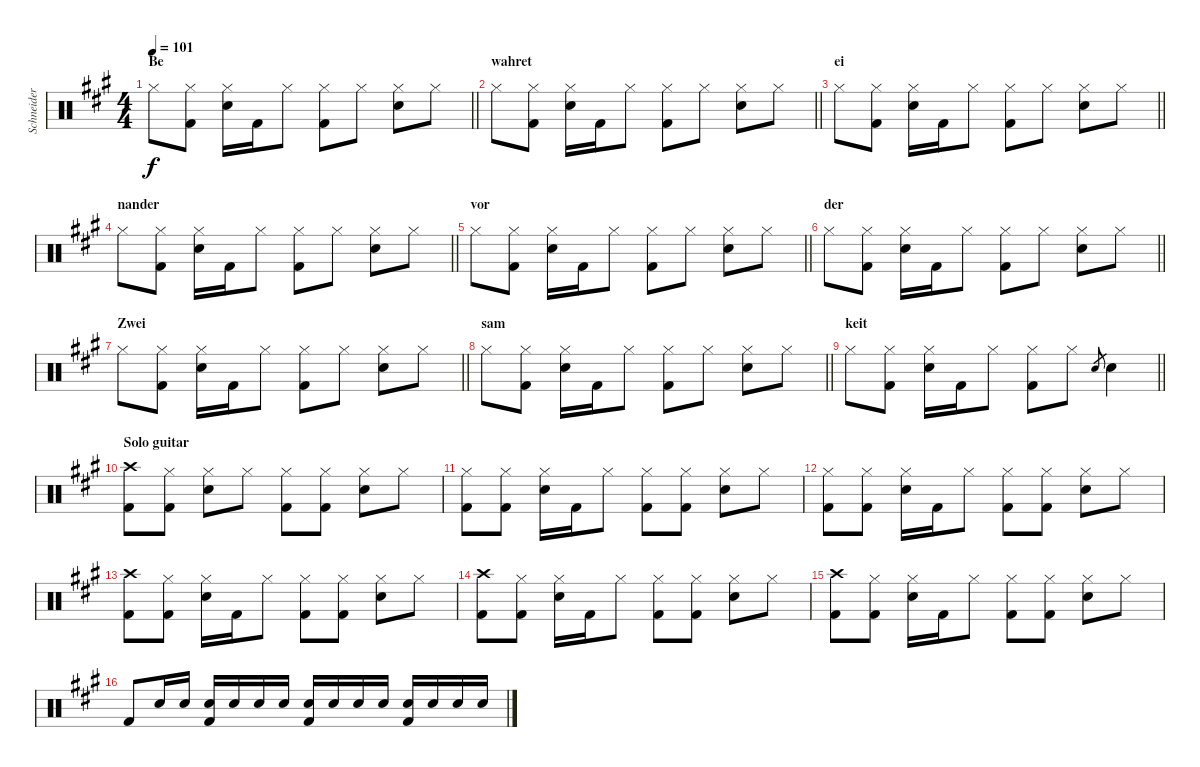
\track ("Schneider" "Schneider") {instrument percussion}
\staff {score}
\articulation defaults
\ts (4 4)
\section ("" "Be")
\tempo 101
\clef neutral
\barLineRight lightlight
\ks f#minor "Hi-Hat (closed)".8{dy f}
("Hi-Hat (closed)" "Kick (hit) 2").8 ("Hi-Hat (closed)" "Snare (hit) 2").16 "Kick (hit) 2".16 "Hi-Hat (closed)".8 ("Hi-Hat (closed)" "Kick (hit) 2").8 "Hi-Hat (closed)".8 ("Hi-Hat (closed)" "Snare (hit) 2").8 "Hi-Hat (closed)".8 |
\section ("" "wahret")
\barLineRight lightlight "Hi-Hat (closed)".8
("Hi-Hat (closed)" "Kick (hit) 2").8 ("Hi-Hat (closed)" "Snare (hit) 2").16 "Kick (hit) 2".16 "Hi-Hat (closed)".8 ("Hi-Hat (closed)" "Kick (hit) 2").8 "Hi-Hat (closed)".8 ("Hi-Hat (closed)" "Snare (hit) 2").8 "Hi-Hat (closed)".8 |
\section ("" "ei")
\barLineRight lightlight "Hi-Hat (closed)".8
("Hi-Hat (closed)" "Kick (hit) 2").8 ("Hi-Hat (closed)" "Snare (hit) 2").16 "Kick (hit) 2".16 "Hi-Hat (closed)".8 ("Hi-Hat (closed)" "Kick (hit) 2").8 "Hi-Hat (closed)".8 ("Hi-Hat (closed)" "Snare (hit) 2").8 "Hi-Hat (closed)".8 |
\section ("" "nander")
\barLineRight lightlight "Hi-Hat (closed)".8
("Hi-Hat (closed)" "Kick (hit) 2").8 ("Hi-Hat (closed)" "Snare (hit) 2").16 "Kick (hit) 2".16 "Hi-Hat (closed)".8 ("Hi-Hat (closed)" "Kick (hit) 2").8 "Hi-Hat (closed)".8 ("Hi-Hat (closed)" "Snare (hit) 2").8 "Hi-Hat (closed)".8 |
\section ("" "vor")
\barLineRight lightlight "Hi-Hat (closed)".8
("Hi-Hat (closed)" "Kick (hit) 2").8 ("Hi-Hat (closed)" "Snare (hit) 2").16 "Kick (hit) 2".16 "Hi-Hat (closed)".8 ("Hi-Hat (closed)" "Kick (hit) 2").8 "Hi-Hat (closed)".8 ("Hi-Hat (closed)" "Snare (hit) 2").8 "Hi-Hat (closed)".8 |
\section ("" "der")
\barLineRight lightlight "Hi-Hat (closed)".8
("Hi-Hat (closed)" "Kick (hit) 2").8 ("Hi-Hat (closed)" "Snare (hit) 2").16 "Kick (hit) 2".16 "Hi-Hat (closed)".8 ("Hi-Hat (closed)" "Kick (hit) 2").8 "Hi-Hat (closed)".8 ("Hi-Hat (closed)" "Snare (hit) 2").8 "Hi-Hat (closed)".8 |
\section ("" "Zwei")
\barLineRight lightlight "Hi-Hat (closed)".8
("Hi-Hat (closed)" "Kick (hit) 2").8 ("Hi-Hat (closed)" "Snare (hit) 2").16 "Kick (hit) 2".16 "Hi-Hat (closed)".8 ("Hi-Hat (closed)" "Kick (hit) 2").8 "Hi-Hat (closed)".8 ("Hi-Hat (closed)" "Snare (hit) 2").8 "Hi-Hat (closed)".8 |
\section ("" "sam")
\barLineRight lightlight "Hi-Hat (closed)".8
("Hi-Hat (closed)" "Kick (hit) 2").8 ("Hi-Hat (closed)" "Snare (hit) 2").16 "Kick (hit) 2".16 "Hi-Hat (closed)".8 ("Hi-Hat (closed)" "Kick (hit) 2").8 "Hi-Hat (closed)".8 ("Hi-Hat (closed)" "Snare (hit) 2").8 "Hi-Hat (closed)".8 |
\section ("" "keit")
\barLineRight lightlight "Hi-Hat (closed)".8
("Hi-Hat (closed)" "Kick (hit) 2").8 ("Hi-Hat (closed)" "Snare (hit) 2").16 "Kick (hit) 2".16 "Hi-Hat (closed)".8 ("Hi-Hat (closed)" "Kick (hit) 2").8 "Hi-Hat (closed)".8 "Snare (hit) 2".8{gr} "Snare (hit) 2".4 |
\section ("" "Solo guitar")
("Crash high (hit)" "Kick (hit) 2").8 ("Hi-Hat (closed)" "Kick (hit) 2").8 ("Hi-Hat (closed)" "Snare (hit) 2").8 "Hi-Hat (closed)".8 ("Hi-Hat (closed)" "Kick (hit) 2").8 ("Hi-Hat (closed)" "Kick (hit) 2").8 ("Hi-Hat (closed)" "Snare (hit) 2").8 "Hi-Hat (closed)".8 |
("Hi-Hat (closed)" "Kick (hit) 2").8 ("Hi-Hat (closed)" "Kick (hit) 2").8 ("Hi-Hat (closed)" "Snare (hit) 2").16 "Kick (hit) 2".16 "Hi-Hat (closed)".8 ("Hi-Hat (closed)" "Kick (hit) 2").8 ("Hi-Hat (closed)" "Kick (hit) 2").8 ("Hi-Hat (closed)" "Snare (hit) 2").8 "Hi-Hat (closed)".8 |
("Hi-Hat (closed)" "Kick (hit) 2").8 ("Hi-Hat (closed)" "Kick (hit) 2").8 ("Hi-Hat (closed)" "Snare (hit) 2").16 "Kick (hit) 2".16 "Hi-Hat (closed)".8 ("Hi-Hat (closed)" "Kick (hit) 2").8 ("Hi-Hat (closed)" "Kick (hit) 2").8 ("Hi-Hat (closed)" "Snare (hit) 2").8 "Hi-Hat (closed)".8 |
("Crash high (hit)" "Kick (hit) 2").8 ("Hi-Hat (closed)" "Kick (hit) 2").8 ("Hi-Hat (closed)" "Snare (hit) 2").16 "Kick (hit) 2".16 "Hi-Hat (closed)".8 ("Hi-Hat (closed)" "Kick (hit) 2").8 ("Hi-Hat (closed)" "Kick (hit) 2").8 ("Hi-Hat (closed)" "Snare (hit) 2").8 "Hi-Hat (closed)".8 |
("Crash high (hit)" "Kick (hit) 2").8 ("Hi-Hat (closed)" "Kick (hit) 2").8 ("Hi-Hat (closed)" "Snare (hit) 2").16 "Kick (hit) 2".16 "Hi-Hat (closed)".8 ("Hi-Hat (closed)" "Kick (hit) 2").8 ("Hi-Hat (closed)" "Kick (hit) 2").8 ("Hi-Hat (closed)" "Snare (hit) 2").8 "Hi-Hat (closed)".8 |
("Crash high (hit)" "Kick (hit) 2").8 ("Hi-Hat (closed)" "Kick (hit) 2").8 ("Hi-Hat (closed)" "Snare (hit) 2").16 "Kick (hit) 2".16 "Hi-Hat (closed)".8 ("Hi-Hat (closed)" "Kick (hit) 2").8 ("Hi-Hat (closed)" "Kick (hit) 2").8 ("Hi-Hat (closed)" "Snare (hit) 2").8 "Hi-Hat (closed)".8 |
"Kick (hit) 2".8 "Snare (hit) 2".16 "Snare (hit) 2".16 ("Snare (hit) 2" "Kick (hit) 2").16 "Snare (hit) 2".16 "Snare (hit) 2".16 "Snare (hit) 2".16 ("Snare (hit) 2" "Kick (hit) 2").16 "Snare (hit) 2".16 "Snare (hit) 2".16 "Snare (hit) 2".16 ("Snare (hit) 2" "Kick (hit) 2").16 "Snare (hit) 2".16 "Snare (hit) 2".16 "Snare (hit) 2".16
